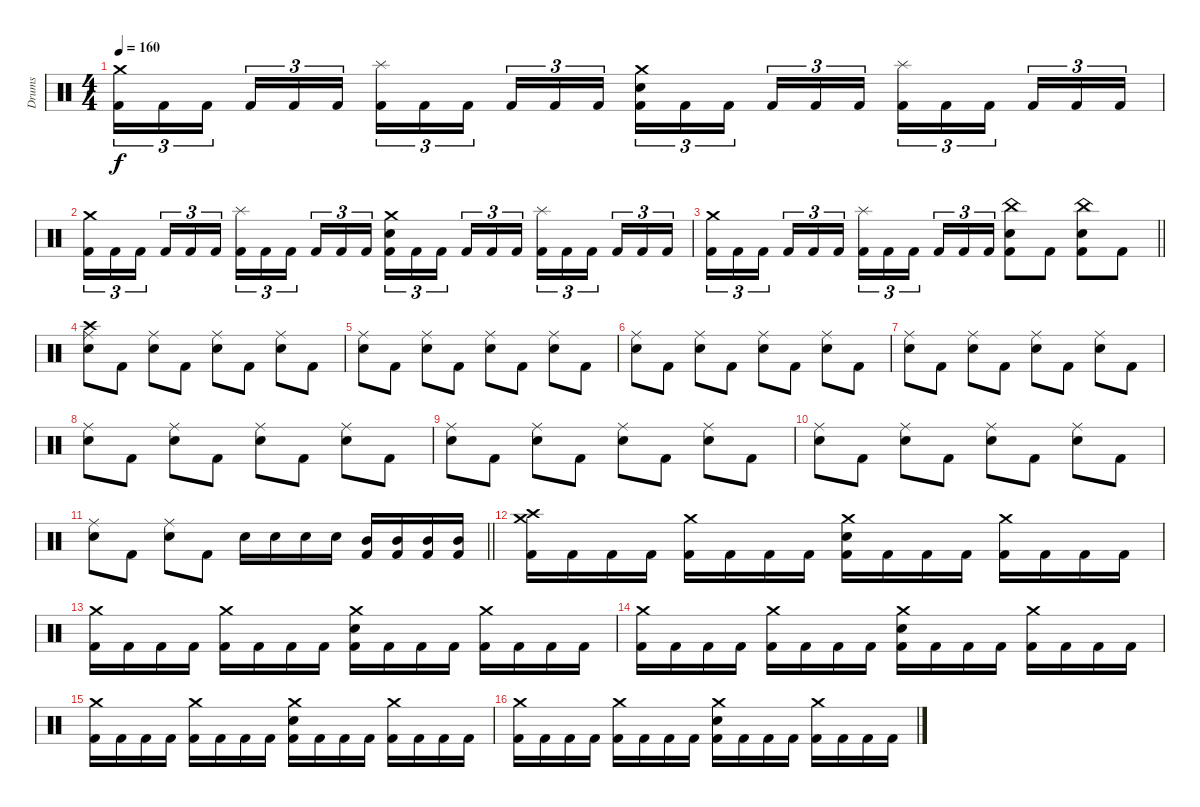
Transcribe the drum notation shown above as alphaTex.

\track ("Drums" "Drums") {instrument percussion}
\staff {score}
\articulation defaults
\ts (4 4)
\tempo 160
\clef neutral
\ks c
("Crash medium (hit)" "Kick (hit) 2").16{tu (3 2) dy f} "Kick (hit) 2".16{tu (3 2)} "Kick (hit) 2".16{tu (3 2) beam splitsecondary} "Kick (hit) 2".16{tu (3 2)} "Kick (hit) 2".16{tu (3 2)} "Kick (hit) 2".16{tu (3 2)} ("Splash (hit)" "Kick (hit) 2").16{tu (3 2)} "Kick (hit) 2".16{tu (3 2)} "Kick (hit) 2".16{tu (3 2) beam splitsecondary} "Kick (hit) 2".16{tu (3 2)} "Kick (hit) 2".16{tu (3 2)} "Kick (hit) 2".16{tu (3 2)} ("Crash medium (hit)" "Snare (hit) 2" "Kick (hit) 2").16{tu (3 2)} "Kick (hit) 2".16{tu (3 2)} "Kick (hit) 2".16{tu (3 2) beam splitsecondary} "Kick (hit) 2".16{tu (3 2)} "Kick (hit) 2".16{tu (3 2)} "Kick (hit) 2".16{tu (3 2)} ("Splash (hit)" "Kick (hit) 2").16{tu (3 2)} "Kick (hit) 2".16{tu (3 2)} "Kick (hit) 2".16{tu (3 2) beam splitsecondary} "Kick (hit) 2".16{tu (3 2)} "Kick (hit) 2".16{tu (3 2)} "Kick (hit) 2".16{tu (3 2)} |
("Crash medium (hit)" "Kick (hit) 2").16{tu (3 2)} "Kick (hit) 2".16{tu (3 2)} "Kick (hit) 2".16{tu (3 2) beam splitsecondary} "Kick (hit) 2".16{tu (3 2)} "Kick (hit) 2".16{tu (3 2)} "Kick (hit) 2".16{tu (3 2)} ("Splash (hit)" "Kick (hit) 2").16{tu (3 2)} "Kick (hit) 2".16{tu (3 2)} "Kick (hit) 2".16{tu (3 2) beam splitsecondary} "Kick (hit) 2".16{tu (3 2)} "Kick (hit) 2".16{tu (3 2)} "Kick (hit) 2".16{tu (3 2)} ("Crash medium (hit)" "Snare (hit) 2" "Kick (hit) 2").16{tu (3 2)} "Kick (hit) 2".16{tu (3 2)} "Kick (hit) 2".16{tu (3 2) beam splitsecondary} "Kick (hit) 2".16{tu (3 2)} "Kick (hit) 2".16{tu (3 2)} "Kick (hit) 2".16{tu (3 2)} ("Splash (hit)" "Kick (hit) 2").16{tu (3 2)} "Kick (hit) 2".16{tu (3 2)} "Kick (hit) 2".16{tu (3 2) beam splitsecondary} "Kick (hit) 2".16{tu (3 2)} "Kick (hit) 2".16{tu (3 2)} "Kick (hit) 2".16{tu (3 2)} |
\barLineRight lightlight
("Crash medium (hit)" "Kick (hit) 2").16{tu (3 2)} "Kick (hit) 2".16{tu (3 2)} "Kick (hit) 2".16{tu (3 2) beam splitsecondary} "Kick (hit) 2".16{tu (3 2)} "Kick (hit) 2".16{tu (3 2)} "Kick (hit) 2".16{tu (3 2)} ("Splash (hit)" "Kick (hit) 2").16{tu (3 2)} "Kick (hit) 2".16{tu (3 2)} "Kick (hit) 2".16{tu (3 2) beam splitsecondary} "Kick (hit) 2".16{tu (3 2)} "Kick (hit) 2".16{tu (3 2)} "Kick (hit) 2".16{tu (3 2)} ("China (hit)" "Snare (hit) 2" "Kick (hit) 2").8 "Kick (hit) 2".8 ("China (hit)" "Snare (hit) 2" "Kick (hit) 2").8 "Kick (hit) 2".8 |
\section ("" "")
("Ride (middle)" "Crash high (hit)" "Snare (hit) 2").8 "Kick (hit) 2".8 ("Ride (middle)" "Snare (hit) 2").8 "Kick (hit) 2".8 ("Ride (middle)" "Snare (hit) 2").8 "Kick (hit) 2".8 ("Ride (middle)" "Snare (hit) 2").8 "Kick (hit) 2".8 |
("Ride (middle)" "Snare (hit) 2").8 "Kick (hit) 2".8 ("Ride (middle)" "Snare (hit) 2").8 "Kick (hit) 2".8 ("Ride (middle)" "Snare (hit) 2").8 "Kick (hit) 2".8 ("Ride (middle)" "Snare (hit) 2").8 "Kick (hit) 2".8 |
("Ride (middle)" "Snare (hit) 2").8 "Kick (hit) 2".8 ("Ride (middle)" "Snare (hit) 2").8 "Kick (hit) 2".8 ("Ride (middle)" "Snare (hit) 2").8 "Kick (hit) 2".8 ("Ride (middle)" "Snare (hit) 2").8 "Kick (hit) 2".8 |
("Ride (middle)" "Snare (hit) 2").8 "Kick (hit) 2".8 ("Ride (middle)" "Snare (hit) 2").8 "Kick (hit) 2".8 ("Ride (middle)" "Snare (hit) 2").8 "Kick (hit) 2".8 ("Ride (middle)" "Snare (hit) 2").8 "Kick (hit) 2".8 |
("Ride (middle)" "Snare (hit) 2").8 "Kick (hit) 2".8 ("Ride (middle)" "Snare (hit) 2").8 "Kick (hit) 2".8 ("Ride (middle)" "Snare (hit) 2").8 "Kick (hit) 2".8 ("Ride (middle)" "Snare (hit) 2").8 "Kick (hit) 2".8 |
("Ride (middle)" "Snare (hit) 2").8 "Kick (hit) 2".8 ("Ride (middle)" "Snare (hit) 2").8 "Kick (hit) 2".8 ("Ride (middle)" "Snare (hit) 2").8 "Kick (hit) 2".8 ("Ride (middle)" "Snare (hit) 2").8 "Kick (hit) 2".8 |
("Ride (middle)" "Snare (hit) 2").8 "Kick (hit) 2".8 ("Ride (middle)" "Snare (hit) 2").8 "Kick (hit) 2".8 ("Ride (middle)" "Snare (hit) 2").8 "Kick (hit) 2".8 ("Ride (middle)" "Snare (hit) 2").8 "Kick (hit) 2".8 |
\barLineRight lightlight
("Ride (middle)" "Snare (hit) 2").8 "Kick (hit) 2".8 ("Ride (middle)" "Snare (hit) 2").8 "Kick (hit) 2".8 "Snare (hit) 2".16 "Snare (hit) 2".16 "Snare (hit) 2".16 "Snare (hit) 2".16 ("Mid Tom (hit)" "Kick (hit) 2").16 ("Mid Tom (hit)" "Kick (hit) 2").16 ("Mid Tom (hit)" "Kick (hit) 2").16 ("Mid Tom (hit)" "Kick (hit) 2").16 |
\section ("" "")
("Crash medium (hit)" "Crash high (hit)" "Kick (hit) 2").16 "Kick (hit) 2".16 "Kick (hit) 2".16 "Kick (hit) 2".16 ("Crash medium (hit)" "Kick (hit) 2").16 "Kick (hit) 2".16 "Kick (hit) 2".16 "Kick (hit) 2".16 ("Crash medium (hit)" "Snare (hit) 2" "Kick (hit) 2").16 "Kick (hit) 2".16 "Kick (hit) 2".16 "Kick (hit) 2".16 ("Crash medium (hit)" "Kick (hit) 2").16 "Kick (hit) 2".16 "Kick (hit) 2".16 "Kick (hit) 2".16 |
("Crash medium (hit)" "Kick (hit) 2").16 "Kick (hit) 2".16 "Kick (hit) 2".16 "Kick (hit) 2".16 ("Crash medium (hit)" "Kick (hit) 2").16 "Kick (hit) 2".16 "Kick (hit) 2".16 "Kick (hit) 2".16 ("Crash medium (hit)" "Snare (hit) 2" "Kick (hit) 2").16 "Kick (hit) 2".16 "Kick (hit) 2".16 "Kick (hit) 2".16 ("Crash medium (hit)" "Kick (hit) 2").16 "Kick (hit) 2".16 "Kick (hit) 2".16 "Kick (hit) 2".16 |
("Crash medium (hit)" "Kick (hit) 2").16 "Kick (hit) 2".16 "Kick (hit) 2".16 "Kick (hit) 2".16 ("Crash medium (hit)" "Kick (hit) 2").16 "Kick (hit) 2".16 "Kick (hit) 2".16 "Kick (hit) 2".16 ("Crash medium (hit)" "Snare (hit) 2" "Kick (hit) 2").16 "Kick (hit) 2".16 "Kick (hit) 2".16 "Kick (hit) 2".16 ("Crash medium (hit)" "Kick (hit) 2").16 "Kick (hit) 2".16 "Kick (hit) 2".16 "Kick (hit) 2".16 |
("Crash medium (hit)" "Kick (hit) 2").16 "Kick (hit) 2".16 "Kick (hit) 2".16 "Kick (hit) 2".16 ("Crash medium (hit)" "Kick (hit) 2").16 "Kick (hit) 2".16 "Kick (hit) 2".16 "Kick (hit) 2".16 ("Crash medium (hit)" "Snare (hit) 2" "Kick (hit) 2").16 "Kick (hit) 2".16 "Kick (hit) 2".16 "Kick (hit) 2".16 ("Crash medium (hit)" "Kick (hit) 2").16 "Kick (hit) 2".16 "Kick (hit) 2".16 "Kick (hit) 2".16 |
("Crash medium (hit)" "Kick (hit) 2").16 "Kick (hit) 2".16 "Kick (hit) 2".16 "Kick (hit) 2".16 ("Crash medium (hit)" "Kick (hit) 2").16 "Kick (hit) 2".16 "Kick (hit) 2".16 "Kick (hit) 2".16 ("Crash medium (hit)" "Snare (hit) 2" "Kick (hit) 2").16 "Kick (hit) 2".16 "Kick (hit) 2".16 "Kick (hit) 2".16 ("Crash medium (hit)" "Kick (hit) 2").16 "Kick (hit) 2".16 "Kick (hit) 2".16 "Kick (hit) 2".16
